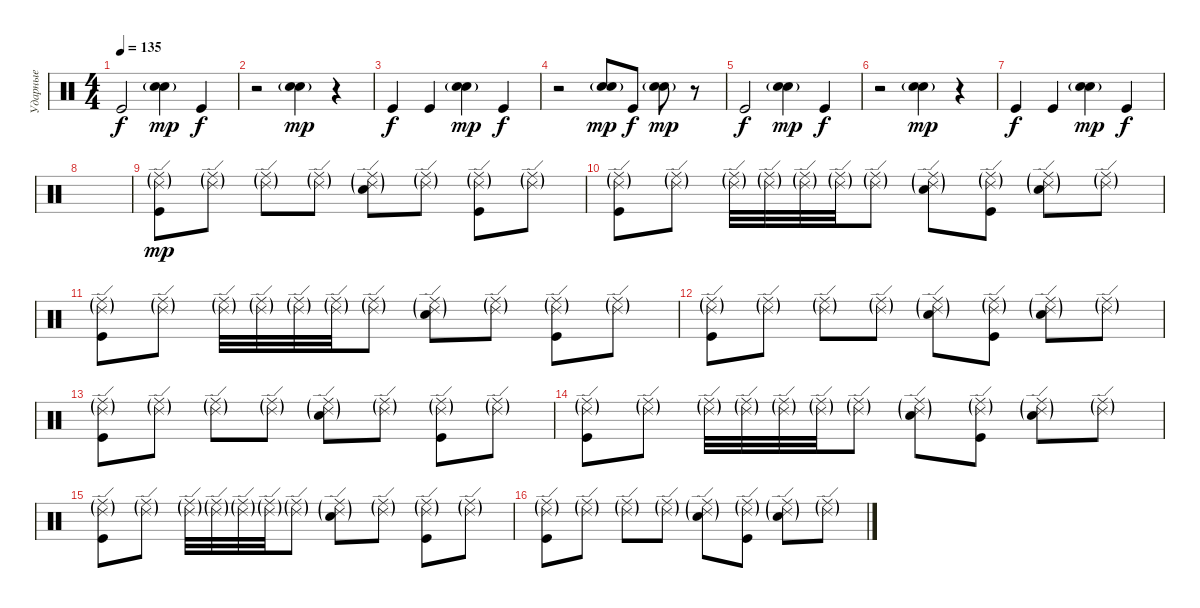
\track ("Ударные" "Ударные") {instrument percussion}
\staff {score}
\articulation defaults
\ts (4 4)
\tempo 135
\clef neutral
\ks c "Kick (hit)".2{dy f}
("Snare (hit) 2"{g} "Electric Snare (hit)"{g}).4{dy mp} "Kick (hit)".4{dy f} |
r.2 ("Snare (hit) 2"{g} "Electric Snare (hit)"{g}).4{dy mp} r.4 |
"Kick (hit)".4{dy f} "Kick (hit)".4 ("Snare (hit) 2"{g} "Electric Snare (hit)"{g}).4{dy mp} "Kick (hit)".4{dy f} |
r.2 ("Snare (hit) 2"{g} "Electric Snare (hit)"{g}).8{dy mp} "Kick (hit)".8{dy f} ("Snare (hit) 2"{g} "Electric Snare (hit)"{g}).8{dy mp} r.8 |
"Kick (hit)".2{dy f} ("Snare (hit) 2"{g} "Electric Snare (hit)"{g}).4{dy mp} "Kick (hit)".4{dy f} |
r.2 ("Snare (hit) 2"{g} "Electric Snare (hit)"{g}).4{dy mp} r.4 |
"Kick (hit)".4{dy f} "Kick (hit)".4 ("Snare (hit) 2"{g} "Electric Snare (hit)"{g}).4{dy mp} "Kick (hit)".4{dy f} |
|
("Ride (edge) 2"{g} "Ride (middle)"{g} "Kick (hit)").8{dy mp} ("Ride (edge) 2"{g} "Ride (middle)"{g}).8 ("Ride (edge) 2"{g} "Ride (middle)"{g}).8 ("Ride (edge) 2"{g} "Ride (middle)"{g}).8 ("Ride (edge) 2"{g} "Ride (middle)"{g} "Electric Snare (hit)"{g}).8 ("Ride (edge) 2"{g} "Ride (middle)"{g}).8 ("Ride (edge) 2"{g} "Ride (middle)"{g} "Kick (hit)").8 ("Ride (edge) 2"{g} "Ride (middle)"{g}).8 |
("Ride (edge) 2"{g} "Ride (middle)"{g} "Kick (hit)").8 ("Ride (edge) 2"{g} "Ride (middle)"{g}).8 ("Ride (edge) 2"{g} "Ride (middle)"{g}).32 ("Ride (edge) 2"{g} "Ride (middle)"{g}).32 ("Ride (edge) 2"{g} "Ride (middle)"{g}).32 ("Ride (edge) 2"{g} "Ride (middle)"{g}).32 ("Ride (edge) 2"{g} "Ride (middle)"{g}).8 ("Ride (edge) 2"{g} "Ride (middle)"{g} "Electric Snare (hit)"{g}).8 ("Ride (edge) 2"{g} "Ride (middle)"{g} "Kick (hit)").8 ("Ride (edge) 2"{g} "Ride (middle)"{g} "Electric Snare (hit)"{g}).8 ("Ride (edge) 2"{g} "Ride (middle)"{g}).8 |
("Ride (edge) 2"{g} "Ride (middle)"{g} "Kick (hit)").8 ("Ride (edge) 2"{g} "Ride (middle)"{g}).8 ("Ride (edge) 2"{g} "Ride (middle)"{g}).32 ("Ride (edge) 2"{g} "Ride (middle)"{g}).32 ("Ride (edge) 2"{g} "Ride (middle)"{g}).32 ("Ride (edge) 2"{g} "Ride (middle)"{g}).32 ("Ride (edge) 2"{g} "Ride (middle)"{g}).8 ("Ride (edge) 2"{g} "Ride (middle)"{g} "Electric Snare (hit)"{g}).8 ("Ride (edge) 2"{g} "Ride (middle)"{g}).8 ("Ride (edge) 2"{g} "Ride (middle)"{g} "Kick (hit)").8 ("Ride (edge) 2"{g} "Ride (middle)"{g}).8 |
("Ride (edge) 2"{g} "Ride (middle)"{g} "Kick (hit)").8 ("Ride (edge) 2"{g} "Ride (middle)"{g}).8 ("Ride (edge) 2"{g} "Ride (middle)"{g}).8 ("Ride (edge) 2"{g} "Ride (middle)"{g}).8 ("Ride (edge) 2"{g} "Ride (middle)"{g} "Electric Snare (hit)"{g}).8 ("Ride (edge) 2"{g} "Ride (middle)"{g} "Kick (hit)").8 ("Ride (edge) 2"{g} "Ride (middle)"{g} "Electric Snare (hit)"{g}).8 ("Ride (edge) 2"{g} "Ride (middle)"{g}).8 |
("Ride (edge) 2"{g} "Ride (middle)"{g} "Kick (hit)").8 ("Ride (edge) 2"{g} "Ride (middle)"{g}).8 ("Ride (edge) 2"{g} "Ride (middle)"{g}).8 ("Ride (edge) 2"{g} "Ride (middle)"{g}).8 ("Ride (edge) 2"{g} "Ride (middle)"{g} "Electric Snare (hit)"{g}).8 ("Ride (edge) 2"{g} "Ride (middle)"{g}).8 ("Ride (edge) 2"{g} "Ride (middle)"{g} "Kick (hit)").8 ("Ride (edge) 2"{g} "Ride (middle)"{g}).8 |
("Ride (edge) 2"{g} "Ride (middle)"{g} "Kick (hit)").8 ("Ride (edge) 2"{g} "Ride (middle)"{g}).8 ("Ride (edge) 2"{g} "Ride (middle)"{g}).32 ("Ride (edge) 2"{g} "Ride (middle)"{g}).32 ("Ride (edge) 2"{g} "Ride (middle)"{g}).32 ("Ride (edge) 2"{g} "Ride (middle)"{g}).32 ("Ride (edge) 2"{g} "Ride (middle)"{g}).8 ("Ride (edge) 2"{g} "Ride (middle)"{g} "Electric Snare (hit)"{g}).8 ("Ride (edge) 2"{g} "Ride (middle)"{g} "Kick (hit)").8 ("Ride (edge) 2"{g} "Ride (middle)"{g} "Electric Snare (hit)"{g}).8 ("Ride (edge) 2"{g} "Ride (middle)"{g}).8 |
("Ride (edge) 2"{g} "Ride (middle)"{g} "Kick (hit)").8 ("Ride (edge) 2"{g} "Ride (middle)"{g}).8 ("Ride (edge) 2"{g} "Ride (middle)"{g}).32 ("Ride (edge) 2"{g} "Ride (middle)"{g}).32 ("Ride (edge) 2"{g} "Ride (middle)"{g}).32 ("Ride (edge) 2"{g} "Ride (middle)"{g}).32 ("Ride (edge) 2"{g} "Ride (middle)"{g}).8 ("Ride (edge) 2"{g} "Ride (middle)"{g} "Electric Snare (hit)"{g}).8 ("Ride (edge) 2"{g} "Ride (middle)"{g}).8 ("Ride (edge) 2"{g} "Ride (middle)"{g} "Kick (hit)").8 ("Ride (edge) 2"{g} "Ride (middle)"{g}).8 |
("Ride (edge) 2"{g} "Ride (middle)"{g} "Kick (hit)").8 ("Ride (edge) 2"{g} "Ride (middle)"{g}).8 ("Ride (edge) 2"{g} "Ride (middle)"{g}).8 ("Ride (edge) 2"{g} "Ride (middle)"{g}).8 ("Ride (edge) 2"{g} "Ride (middle)"{g} "Electric Snare (hit)"{g}).8 ("Ride (edge) 2"{g} "Ride (middle)"{g} "Kick (hit)").8 ("Ride (edge) 2"{g} "Ride (middle)"{g} "Electric Snare (hit)"{g}).8 ("Ride (edge) 2"{g} "Ride (middle)"{g}).8
